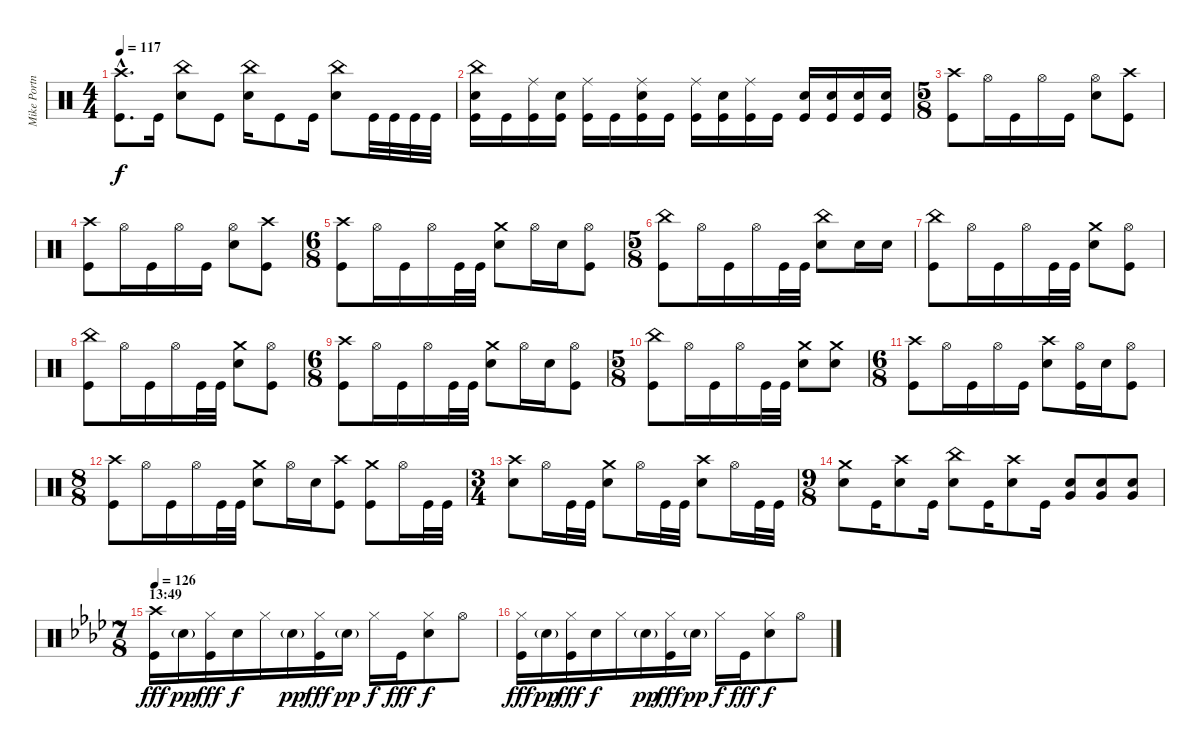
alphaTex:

\track ("Mike Portnoy" "Mike Portn") {instrument percussion}
\staff {score}
\articulation defaults
\ts (4 4)
\tempo 117
\clef neutral
\ks c
("Crash high (hit)"{hac} "Kick (hit)"{hac}).8{d dy f} "Kick (hit)".16 ("China (hit)" "Electric Snare (hit)").8 "Kick (hit)".8 ("China (hit)" "Electric Snare (hit)").16 "Kick (hit)".8 "Kick (hit)".16 ("China (hit)" "Electric Snare (hit)").8 "Kick (hit)".32 "Kick (hit)".32 "Kick (hit)".32 "Kick (hit)".32 |
("China (hit)" "Electric Snare (hit)" "Kick (hit)").16 "Kick (hit)".16 ("Ride (middle)" "Kick (hit)").16 ("Electric Snare (hit)" "Kick (hit)").16 ("Ride (middle)" "Kick (hit)").16 "Kick (hit)".16 ("Ride (middle)" "Electric Snare (hit)" "Kick (hit)").16 "Kick (hit)".16 ("Ride (middle)" "Kick (hit)").16 ("Electric Snare (hit)" "Kick (hit)").16 ("Ride (middle)" "Kick (hit)").16 "Kick (hit)".16 ("Electric Snare (hit)" "Kick (hit)").16 ("Electric Snare (hit)" "Kick (hit)").16 ("Electric Snare (hit)" "Kick (hit)").16 ("Electric Snare (hit)" "Kick (hit)").16 |
\ts (5 8)
("Crash high (hit)" "Kick (hit)").8 "Hi-Hat (open)".16 "Kick (hit)".16 "Hi-Hat (open)".16 "Kick (hit)".16 ("Hi-Hat (open)" "Electric Snare (hit)").8 ("Crash high (hit)" "Kick (hit)").8 |
("Crash high (hit)" "Kick (hit)").8 "Hi-Hat (open)".16 "Kick (hit)".16 "Hi-Hat (open)".16 "Kick (hit)".16 ("Hi-Hat (open)" "Electric Snare (hit)").8 ("Crash high (hit)" "Kick (hit)").8 |
\ts (6 8)
("Crash high (hit)" "Kick (hit)").8 "Hi-Hat (open)".16 "Kick (hit)".16 "Hi-Hat (open)".16 "Kick (hit)".32 "Kick (hit)".32 ("Crash medium (hit)" "Electric Snare (hit)").8 "Hi-Hat (open)".16 "Electric Snare (hit)".16 ("Hi-Hat (open)" "Kick (hit)").8 |
\ts (5 8)
("China (hit)" "Kick (hit)").8 "Hi-Hat (open)".16 "Kick (hit)".16 "Hi-Hat (open)".16 "Kick (hit)".32 "Kick (hit)".32 ("China (hit)" "Electric Snare (hit)").8 "Electric Snare (hit)".16 "Electric Snare (hit)".16 |
("China (hit)" "Kick (hit)").8 "Hi-Hat (open)".16 "Kick (hit)".16 "Hi-Hat (open)".16 "Kick (hit)".32 "Kick (hit)".32 ("Crash medium (hit)" "Electric Snare (hit)").8 ("Hi-Hat (open)" "Kick (hit)").8 |
("China (hit)" "Kick (hit)").8 "Hi-Hat (open)".16 "Kick (hit)".16 "Hi-Hat (open)".16 "Kick (hit)".32 "Kick (hit)".32 ("Crash medium (hit)" "Electric Snare (hit)").8 ("Hi-Hat (open)" "Kick (hit)").8 |
\ts (6 8)
("Crash high (hit)" "Kick (hit)").8 "Hi-Hat (open)".16 "Kick (hit)".16 "Hi-Hat (open)".16 "Kick (hit)".32 "Kick (hit)".32 ("Crash medium (hit)" "Electric Snare (hit)").8 "Hi-Hat (open)".16 "Electric Snare (hit)".16 ("Hi-Hat (open)" "Kick (hit)").8 |
\ts (5 8)
("China (hit)" "Kick (hit)").8 "Hi-Hat (open)".16 "Kick (hit)".16 "Hi-Hat (open)".16 "Kick (hit)".32 "Kick (hit)".32 ("Crash medium (hit)" "Electric Snare (hit)").8 ("Crash medium (hit)" "Electric Snare (hit)").8 |
\ts (6 8)
("Crash high (hit)" "Kick (hit)").8 "Hi-Hat (open)".16 "Kick (hit)".16 "Hi-Hat (open)".16 "Kick (hit)".16 ("Crash high (hit)" "Electric Snare (hit)").8 ("Hi-Hat (open)" "Kick (hit)").16 "Electric Snare (hit)".16 ("Hi-Hat (open)" "Kick (hit)").8 |
\ts (8 8)
("Crash high (hit)" "Kick (hit)").8 "Hi-Hat (open)".16 "Kick (hit)".16 "Hi-Hat (open)".16 "Kick (hit)".32 "Kick (hit)".32 ("Crash medium (hit)" "Electric Snare (hit)").8 "Hi-Hat (open)".16 "Electric Snare (hit)".16 ("Crash high (hit)" "Kick (hit)").8 ("Crash medium (hit)" "Kick (hit)").8 "Hi-Hat (open)".16 "Kick (hit)".32 "Kick (hit)".32 |
\ts (3 4)
("Crash high (hit)" "Electric Snare (hit)").8 "Hi-Hat (open)".16 "Kick (hit)".32 "Kick (hit)".32 ("Crash medium (hit)" "Electric Snare (hit)").8 "Hi-Hat (open)".16 "Kick (hit)".32 "Kick (hit)".32 ("Crash high (hit)" "Electric Snare (hit)").8 "Hi-Hat (open)".16 "Kick (hit)".32 "Kick (hit)".32 |
\ts (9 8)
("Crash medium (hit)" "Electric Snare (hit)").8 "Kick (hit)".16 ("Crash high (hit)" "Electric Snare (hit)").8 "Kick (hit)".16 ("China (hit)" "Electric Snare (hit)").8 "Kick (hit)".16 ("Crash high (hit)" "Electric Snare (hit)").8 "Kick (hit)".16 ("Very Low Tom (hit)" "Electric Snare (hit)").8 ("Very Low Tom (hit)" "Electric Snare (hit)").8 ("Very Low Tom (hit)" "Electric Snare (hit)").8 |
\ts (7 8)
\section ("" "13:49")
\tempo 126
\ks ab
("Crash high (hit)" "Kick (hit)").16{dy fff} "Electric Snare (hit)"{g}.16{dy pp} ("Hi-Hat (closed)" "Kick (hit)").16{dy fff} "Electric Snare (hit)".16{dy f} "Hi-Hat (closed)".16 "Electric Snare (hit)"{g}.16{dy pp} ("Hi-Hat (closed)" "Kick (hit)").16{dy fff} "Electric Snare (hit)"{g}.16{dy pp} "Hi-Hat (closed)".16{dy f} "Kick (hit)".16{dy fff} ("Hi-Hat (closed)" "Electric Snare (hit)").8{dy f} "Hi-Hat (open)".8 |
("Hi-Hat (closed)" "Kick (hit)").16{dy fff} "Electric Snare (hit)"{g}.16{dy pp} ("Hi-Hat (closed)" "Kick (hit)").16{dy fff} "Electric Snare (hit)".16{dy f} "Hi-Hat (closed)".16 "Electric Snare (hit)"{g}.16{dy pp} ("Hi-Hat (closed)" "Kick (hit)").16{dy fff} "Electric Snare (hit)"{g}.16{dy pp} "Hi-Hat (closed)".16{dy f} "Kick (hit)".16{dy fff} ("Hi-Hat (closed)" "Electric Snare (hit)").8{dy f} "Hi-Hat (open)".8
